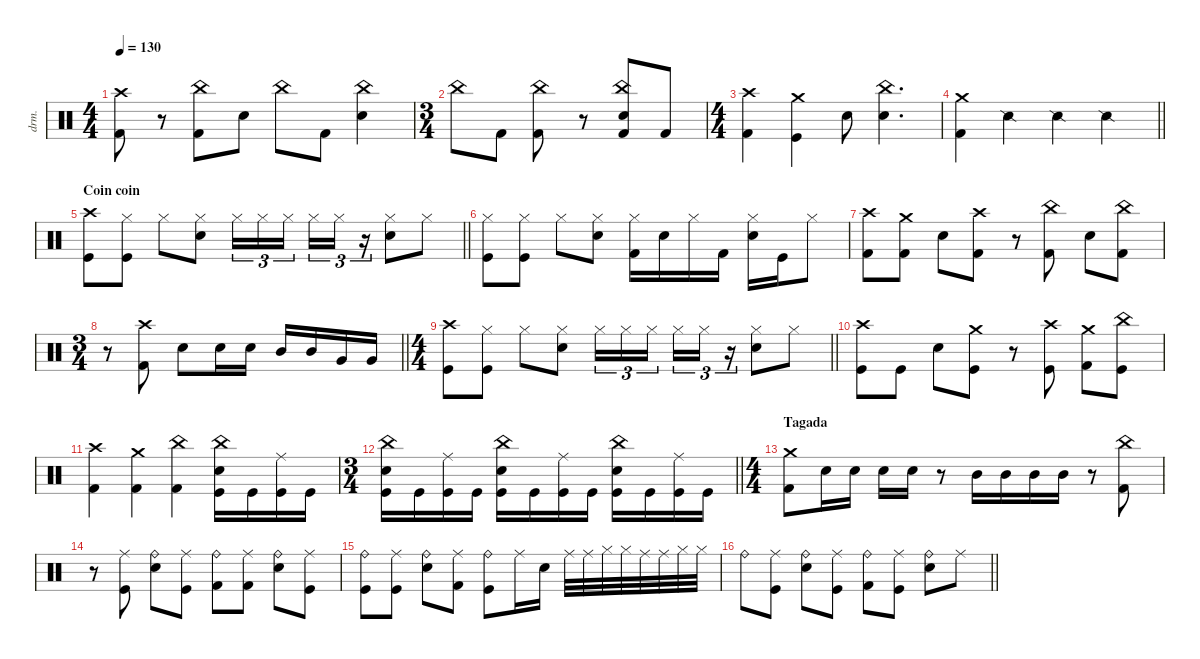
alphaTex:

\defaultSystemsLayout 4
\hideDynamics
\bracketExtendMode nobrackets
\track ("Manouche" "drm.") {instrument percussion}
\staff {score}
\articulation defaults
\ts (4 4)
\tempo 130
\clef neutral
\ks c
("Crash high (hit)" "Kick (hit) 2").8{dy f} r.8 ("China (hit)" "Kick (hit) 2").8 "Snare (hit) 2".8 "China (hit)".8 "Kick (hit) 2".8 ("China (hit)" "Snare (hit) 2").4 |
\ts (3 4)
\beaming (8 2 2 2 2)
"China (hit)".8 "Kick (hit) 2".8 ("China (hit)" "Kick (hit) 2").8 r.8 ("China (hit)" "Snare (hit) 2" "Kick (hit) 2").8 "Kick (hit) 2".8 |
\ts (4 4)
\beaming (8 2 2 2 2)
("Kick (hit) 2" "Crash high (hit)").4 ("Crash medium (hit)" "Kick (hit)").4 "Snare (hit) 2".8 ("China (hit)" "Snare (hit) 2").4{d} |
\barLineRight lightlight
("Kick (hit) 2" "Crash medium (hit)").4 "Snare (side stick) 2".4 "Snare (side stick) 2".4 "Snare (side stick) 2".4 |
\section ("" "Coin coin")
\barLineRight lightlight
("Crash high (hit)" "Kick (hit)").8 ("Hi-Hat (closed)" "Kick (hit)").8 "Hi-Hat (closed)".8 ("Hi-Hat (closed)" "Snare (hit) 2").8 "Hi-Hat (closed)".16{tu (3 2) dy mp} "Hi-Hat (closed)".16{tu (3 2)} "Hi-Hat (closed)".16{tu (3 2)} "Hi-Hat (closed)".16{tu (3 2)} "Hi-Hat (closed)".16{tu (3 2)} r.16{tu (3 2)} ("Snare (hit) 2" "Hi-Hat (closed)").8{dy f} "Hi-Hat (closed)".8 |
("Hi-Hat (closed)" "Kick (hit)").8 ("Hi-Hat (closed)" "Kick (hit)").8 "Hi-Hat (closed)".8 ("Hi-Hat (closed)" "Snare (hit) 2").8 ("Hi-Hat (closed)" "Kick (hit) 2").16 "Snare (hit) 2".16 "Hi-Hat (closed)".16 "Kick (hit) 2".16 ("Hi-Hat (closed)" "Snare (hit) 2").16 "Kick (hit)".16 "Hi-Hat (closed)".8 |
("Crash high (hit)" "Kick (hit) 2").8 ("Crash medium (hit)" "Kick (hit) 2").8 "Snare (hit) 2".8 ("Kick (hit) 2" "Crash high (hit)").8 r.8 ("Kick (hit) 2" "China (hit)").8 "Snare (hit) 2".8 ("Kick (hit) 2" "China (hit)").8 |
\ts (3 4)
\beaming (8 2 2 2)
\barLineRight lightlight
r.8 ("Crash high (hit)" "Kick (hit) 2").8 "Snare (hit) 2".8 "Snare (hit) 2".16 "Snare (hit) 2".16 "Mid Tom (hit)".16 "Mid Tom (hit)".16 "Very Low Tom (hit)".16 "Very Low Tom (hit)".16 |
\ts (4 4)
\beaming (8 2 2 2 2)
\barLineRight lightlight
("Crash high (hit)" "Kick (hit)").8 ("Hi-Hat (closed)" "Kick (hit)").8 "Hi-Hat (closed)".8 ("Hi-Hat (closed)" "Snare (hit) 2").8 "Hi-Hat (closed)".16{tu (3 2) dy mf} "Hi-Hat (closed)".16{tu (3 2) dy mp} "Hi-Hat (closed)".16{tu (3 2) dy mf} "Hi-Hat (closed)".16{tu (3 2)} "Hi-Hat (closed)".16{tu (3 2) dy mp} r.16{tu (3 2)} ("Snare (hit) 2" "Hi-Hat (closed)").8{dy f} "Hi-Hat (closed)".8 |
("Crash high (hit)" "Kick (hit)").8 "Kick (hit)".8 "Snare (hit) 2".8 ("Crash medium (hit)" "Kick (hit)").8 r.8 ("Crash high (hit)" "Kick (hit)").8 ("Kick (hit) 2" "Crash medium (hit)").8 ("China (hit)" "Kick (hit)").8 |
("Kick (hit) 2" "Crash high (hit)").4 ("Crash medium (hit)" "Kick (hit) 2").4 ("China (hit)" "Kick (hit) 2").4 ("China (hit)" "Snare (hit) 2" "Kick (hit)").16 "Kick (hit)".16 ("Ride (middle)" "Kick (hit)").16 "Kick (hit)".16 |
\ts (3 4)
\beaming (8 2 2 2)
\barLineRight lightlight
("China (hit)" "Snare (hit) 2" "Kick (hit)").16 "Kick (hit)".16 ("Ride (middle)" "Kick (hit)").16 "Kick (hit)".16 ("China (hit)" "Snare (hit) 2" "Kick (hit)").16 "Kick (hit)".16 ("Ride (middle)" "Kick (hit)").16 "Kick (hit)".16 ("China (hit)" "Snare (hit) 2" "Kick (hit)").16 "Kick (hit)".16 ("Kick (hit)" "Ride (middle)").16 "Kick (hit)".16 |
\ts (4 4)
\beaming (8 2 2 2 2)
\section ("" "Tagada")
("Crash medium (hit)" "Kick (hit) 2").8 "Snare (hit) 2".16 "Snare (hit) 2".16 "Snare (hit) 2".16 "Snare (hit) 2".16 r.8 "Mid Tom (hit)".16 "Mid Tom (hit)".16 "Mid Tom (hit)".16 "Mid Tom (hit)".16 r.8 ("China (hit)" "Kick (hit) 2").8 |
r.8 ("Ride (middle)" "Kick (hit)").8{dy mp} ("Snare (hit) 2" "Ride (bell)").8{dy f} ("Kick (hit)" "Ride (middle)").8 ("Ride (bell)" "Kick (hit) 2").8 ("Ride (middle)" "Kick (hit) 2").8{dy mp} ("Ride (bell)" "Snare (hit) 2").8{dy f} ("Ride (middle)" "Kick (hit)").8{dy mp} |
("Kick (hit)" "Ride (bell)").8{dy f} ("Kick (hit)" "Ride (middle)").8 ("Ride (bell)" "Snare (hit) 2").8 ("Ride (middle)" "Kick (hit) 2").8{dy mp} ("Ride (bell)" "Kick (hit)").8{dy f} "Ride (middle)".16{dy mp} "Snare (hit) 2".16{dy f} "Ride (middle)".32 "Ride (middle)".32 "Hi-Hat (closed)".32 "Hi-Hat (closed)".32 "Ride (middle)".32 "Ride (middle)".32 "Hi-Hat (closed)".32 "Hi-Hat (closed)".32 |
\barLineRight lightlight "Ride (bell)".8
("Kick (hit)" "Ride (middle)").8 ("Snare (hit) 2" "Ride (bell)").8 ("Ride (middle)" "Kick (hit)").8{dy mp} ("Ride (bell)" "Kick (hit) 2").8{dy f} ("Ride (middle)" "Kick (hit)").8{dy mp} ("Snare (hit) 2" "Ride (bell)").8{dy f} "Ride (middle)".8{dy mp}
